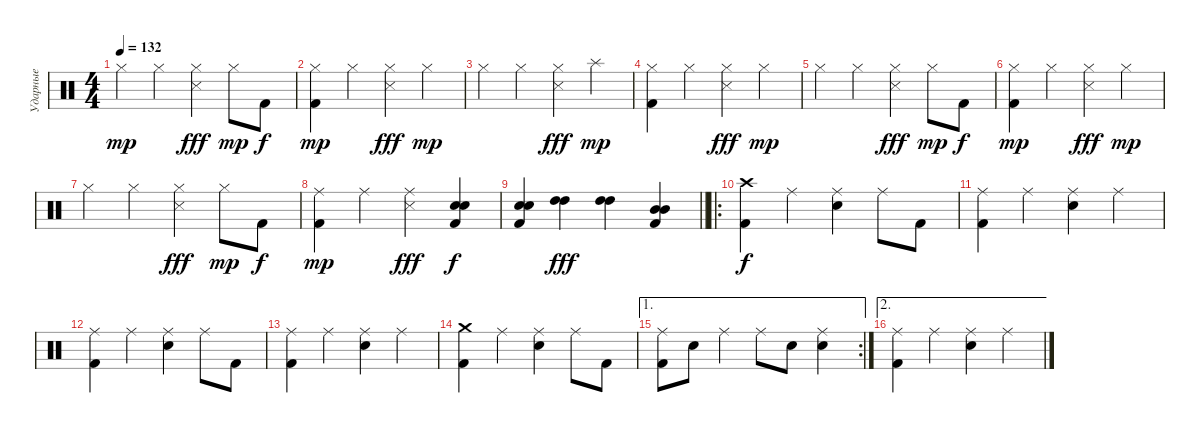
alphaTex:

\track ("Ударные" "Ударные") {instrument percussion}
\staff {score}
\articulation defaults
\ts (4 4)
\tempo 132
\clef neutral
\ks c "Hi-Hat (closed)".4{dy mp} "Hi-Hat (closed)".4
("Hi-Hat (closed)" "Snare (side stick) 3").4{dy fff} "Hi-Hat (closed)".8{dy mp} "Kick (hit) 2".8{dy f} |
("Hi-Hat (closed)" "Kick (hit) 2").4{dy mp} "Hi-Hat (closed)".4 ("Hi-Hat (closed)" "Snare (side stick) 3").4{dy fff} "Hi-Hat (closed)".4{dy mp} |
"Hi-Hat (closed)".4 "Hi-Hat (closed)".4 ("Hi-Hat (closed)" "Snare (side stick) 3").4{dy fff} "Splash (hit)".4{dy mp} |
("Hi-Hat (closed)" "Kick (hit) 2").4 "Hi-Hat (closed)".4 ("Hi-Hat (closed)" "Snare (side stick) 3").4{dy fff} "Hi-Hat (closed)".4{dy mp} |
"Hi-Hat (closed)".4 "Hi-Hat (closed)".4 ("Hi-Hat (closed)" "Snare (side stick) 3").4{dy fff} "Hi-Hat (closed)".8{dy mp} "Kick (hit) 2".8{dy f} |
("Hi-Hat (closed)" "Kick (hit) 2").4{dy mp} "Hi-Hat (closed)".4 ("Hi-Hat (closed)" "Snare (side stick) 3").4{dy fff} "Hi-Hat (closed)".4{dy mp} |
"Hi-Hat (closed)".4 "Hi-Hat (closed)".4 ("Hi-Hat (closed)" "Snare (side stick) 3").4{dy fff} "Hi-Hat (closed)".8{dy mp} "Kick (hit) 2".8{dy f} |
("Ride (middle)" "Kick (hit) 2").4{dy mp} "Ride (middle)".4 ("Ride (middle)" "Snare (side stick) 3").4{dy fff} ("Snare (hit) 2" "Snare (hit) 2" "Kick (hit) 2").4{dy f} |
\barLineRight lightlight
("Snare (hit) 2" "Snare (hit) 2" "Kick (hit) 2").4 ("High Tom (hit)" "High Tom (hit)").4{dy fff} ("High Tom (hit)" "High Tom (hit)").4 ("Mid Tom (hit)" "Mid Tom (hit)" "Kick (hit) 2").4 |
\ro
("Crash high (hit)" "Kick (hit) 2").4{dy f} "Ride (middle)".4 ("Ride (middle)" "Snare (hit) 2").4 "Ride (middle)".8 "Kick (hit) 2".8 |
("Ride (middle)" "Kick (hit) 2").4 "Ride (middle)".4 ("Ride (middle)" "Snare (hit) 2").4 "Ride (middle)".4 |
("Ride (middle)" "Kick (hit) 2").4 "Ride (middle)".4 ("Ride (middle)" "Snare (hit) 2").4 "Ride (middle)".8 "Kick (hit) 2".8 |
("Ride (middle)" "Kick (hit) 2").4 "Ride (middle)".4 ("Ride (middle)" "Snare (hit) 2").4 "Ride (middle)".4 |
("Crash medium (hit)" "Kick (hit) 2").4 "Ride (middle)".4 ("Ride (middle)" "Snare (hit) 2").4 "Ride (middle)".8 "Kick (hit) 2".8 |
\ae 1
\rc 2
("Ride (middle)" "Kick (hit) 2").8 "Snare (hit) 2".8 "Ride (middle)".4 "Ride (middle)".8 "Snare (hit) 2".8 ("Ride (middle)" "Snare (hit) 2").4 |
\ae 2
("Ride (middle)" "Kick (hit) 2").4 "Ride (middle)".4 ("Ride (middle)" "Snare (hit) 2").4 "Ride (middle)".4
